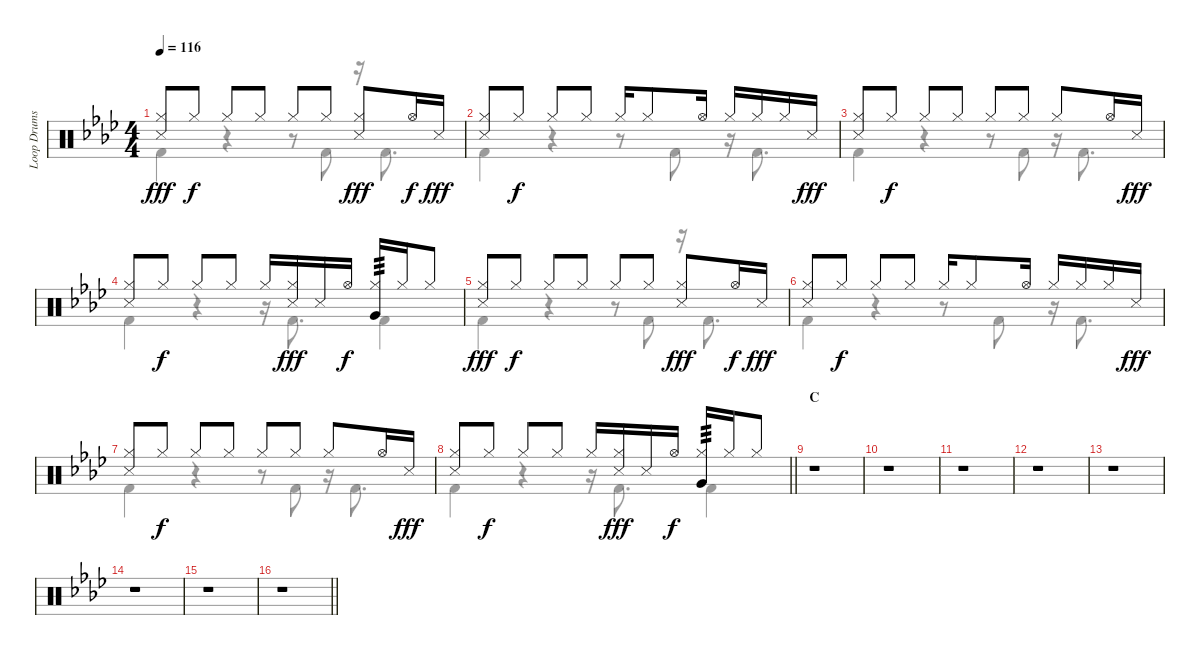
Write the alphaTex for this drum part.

\track ("Loop Drums I" "Loop Drums") {instrument percussion}
\staff {score}
\articulation defaults
\voice
\ts (4 4)
\tempo 116
\clef neutral
\ks ab
("Hi-Hat (closed)" "Snare (side stick) 3").8{dy fff} "Hi-Hat (closed)".8{dy f} "Hi-Hat (closed)".8 "Hi-Hat (closed)".8 "Hi-Hat (closed)".8 "Hi-Hat (closed)".8 ("Hi-Hat (closed)" "Snare (side stick) 3").8{dy fff} "Hi-Hat (open)".16{dy f} "Snare (side stick) 3".16{dy fff} |
("Hi-Hat (closed)" "Snare (side stick) 3").8 "Hi-Hat (closed)".8{dy f} "Hi-Hat (closed)".8 "Hi-Hat (closed)".8 "Hi-Hat (closed)".16 "Hi-Hat (closed)".8 "Hi-Hat (open)".16 "Hi-Hat (closed)".16 "Hi-Hat (closed)".16 "Hi-Hat (closed)".16 "Snare (side stick) 3".16{dy fff} |
("Hi-Hat (closed)" "Snare (side stick) 3").8 "Hi-Hat (closed)".8{dy f} "Hi-Hat (closed)".8 "Hi-Hat (closed)".8 "Hi-Hat (closed)".8 "Hi-Hat (closed)".8 "Hi-Hat (closed)".8 "Hi-Hat (open)".16 "Snare (side stick) 3".16{dy fff} |
("Hi-Hat (closed)" "Snare (side stick) 3").8 "Hi-Hat (closed)".8{dy f} "Hi-Hat (closed)".8 "Hi-Hat (closed)".8 "Hi-Hat (closed)".16 ("Hi-Hat (closed)" "Snare (side stick) 3").16{dy fff} "Snare (side stick) 3".16 "Hi-Hat (open)".16{dy f} ("Hi-Hat (closed)" "Very Low Tom (hit)").16{tp 3} "Hi-Hat (closed)".16 "Hi-Hat (closed)".8 |
("Hi-Hat (closed)" "Snare (side stick) 3").8{dy fff} "Hi-Hat (closed)".8{dy f} "Hi-Hat (closed)".8 "Hi-Hat (closed)".8 "Hi-Hat (closed)".8 "Hi-Hat (closed)".8 ("Hi-Hat (closed)" "Snare (side stick) 3").8{dy fff} "Hi-Hat (open)".16{dy f} "Snare (side stick) 3".16{dy fff} |
("Hi-Hat (closed)" "Snare (side stick) 3").8 "Hi-Hat (closed)".8{dy f} "Hi-Hat (closed)".8 "Hi-Hat (closed)".8 "Hi-Hat (closed)".16 "Hi-Hat (closed)".8 "Hi-Hat (open)".16 "Hi-Hat (closed)".16 "Hi-Hat (closed)".16 "Hi-Hat (closed)".16 "Snare (side stick) 3".16{dy fff} |
("Hi-Hat (closed)" "Snare (side stick) 3").8 "Hi-Hat (closed)".8{dy f} "Hi-Hat (closed)".8 "Hi-Hat (closed)".8 "Hi-Hat (closed)".8 "Hi-Hat (closed)".8 "Hi-Hat (closed)".8 "Hi-Hat (open)".16 "Snare (side stick) 3".16{dy fff} |
\barLineRight lightlight
("Hi-Hat (closed)" "Snare (side stick) 3").8 "Hi-Hat (closed)".8{dy f} "Hi-Hat (closed)".8 "Hi-Hat (closed)".8 "Hi-Hat (closed)".16 ("Hi-Hat (closed)" "Snare (side stick) 3").16{dy fff} "Snare (side stick) 3".16 "Hi-Hat (open)".16{dy f} ("Hi-Hat (closed)" "Very Low Tom (hit)").16{tp 3} "Hi-Hat (closed)".16 "Hi-Hat (closed)".8 |
\section ("" "C")
r.1 |
r.1 |
r.1 |
r.1 |
r.1 |
r.1 |
r.1 |
\barLineRight lightlight
r.1
\voice
\clef neutral
\ottava regular
\simile none
\ks ab "Kick (hit) 2".4{dy fff}
r.4 r.8 "Kick (hit) 2".8 r.16 "Kick (hit) 2".8{d} |
"Kick (hit) 2".4 r.4 r.8 "Kick (hit) 2".8 r.16 "Kick (hit) 2".8{d} |
"Kick (hit) 2".4 r.4 r.8 "Kick (hit) 2".8 r.16 "Kick (hit) 2".8{d} |
"Kick (hit) 2".4 r.4 r.16 "Kick (hit) 2".8{d} "Kick (hit) 2".4 |
"Kick (hit) 2".4 r.4 r.8 "Kick (hit) 2".8 r.16 "Kick (hit) 2".8{d} |
"Kick (hit) 2".4 r.4 r.8 "Kick (hit) 2".8 r.16 "Kick (hit) 2".8{d} |
"Kick (hit) 2".4 r.4 r.8 "Kick (hit) 2".8 r.16 "Kick (hit) 2".8{d} |
\barLineRight lightlight "Kick (hit) 2".4
r.4 r.16 "Kick (hit) 2".8{d} "Kick (hit) 2".4 |
r.1 |
r.1 |
r.1 |
r.1 |
r.1 |
r.1 |
r.1 |
\barLineRight lightlight
r.1
